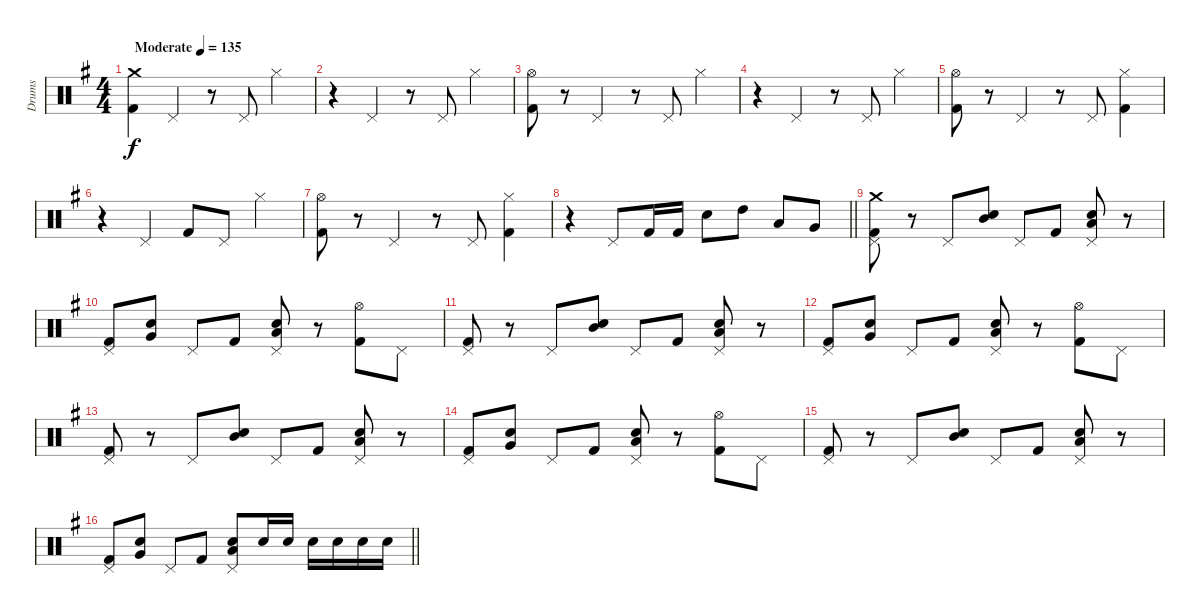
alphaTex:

\track ("Drums" "Drums") {instrument percussion}
\staff {score}
\articulation defaults
\ts (4 4)
\section ("" "")
\tempo (135 "Moderate")
\clef neutral
\ks eminor
("Crash medium (hit)" "Kick (hit) 2").4{dy f} "Pedal Hi-Hat (hit)".4 r.8 "Pedal Hi-Hat (hit)".8 "Hi-Hat (closed)".4 |
r.4 "Pedal Hi-Hat (hit)".4 r.8 "Pedal Hi-Hat (hit)".8 "Hi-Hat (closed)".4 |
("Hi-Hat (open)" "Kick (hit) 2").8 r.8 "Pedal Hi-Hat (hit)".4 r.8 "Pedal Hi-Hat (hit)".8 "Hi-Hat (closed)".4 |
r.4 "Pedal Hi-Hat (hit)".4 r.8 "Pedal Hi-Hat (hit)".8 "Hi-Hat (closed)".4 |
("Hi-Hat (open)" "Kick (hit) 2").8 r.8 "Pedal Hi-Hat (hit)".4 r.8 "Pedal Hi-Hat (hit)".8 ("Hi-Hat (closed)" "Kick (hit) 2").4 |
r.4 "Pedal Hi-Hat (hit)".4 "Kick (hit) 2".8 "Pedal Hi-Hat (hit)".8 "Hi-Hat (closed)".4 |
("Hi-Hat (open)" "Kick (hit) 2").8 r.8 "Pedal Hi-Hat (hit)".4 r.8 "Pedal Hi-Hat (hit)".8 ("Hi-Hat (closed)" "Kick (hit) 2").4 |
\barLineRight lightlight
r.4 "Pedal Hi-Hat (hit)".8 "Kick (hit) 2".16 "Kick (hit) 2".16 "Electric Snare (hit)".8 "High Tom (hit)".8 "Low Tom (hit)".8 "Very Low Tom (hit)".8 |
\section ("" "")
("Crash medium (hit)" "Pedal Hi-Hat (hit)" "Kick (hit) 2").8 r.8 "Pedal Hi-Hat (hit)".8 ("Electric Snare (hit)" "Mid Tom (hit)").8 "Pedal Hi-Hat (hit)".8 "Kick (hit) 2".8 ("Pedal Hi-Hat (hit)" "Electric Snare (hit)" "Low Tom (hit)").8 r.8 |
("Pedal Hi-Hat (hit)" "Kick (hit) 2").8 ("Electric Snare (hit)" "Very Low Tom (hit)").8 "Pedal Hi-Hat (hit)".8 "Kick (hit) 2".8 ("Pedal Hi-Hat (hit)" "Electric Snare (hit)" "Low Floor Tom (hit)").8 r.8 ("Hi-Hat (open)" "Kick (hit) 2").8 "Pedal Hi-Hat (hit)".8 |
("Pedal Hi-Hat (hit)" "Kick (hit) 2").8 r.8 "Pedal Hi-Hat (hit)".8 ("Electric Snare (hit)" "Mid Tom (hit)").8 "Pedal Hi-Hat (hit)".8 "Kick (hit) 2".8 ("Pedal Hi-Hat (hit)" "Electric Snare (hit)" "Low Tom (hit)").8 r.8 |
("Pedal Hi-Hat (hit)" "Kick (hit) 2").8 ("Electric Snare (hit)" "Very Low Tom (hit)").8 "Pedal Hi-Hat (hit)".8 "Kick (hit) 2".8 ("Pedal Hi-Hat (hit)" "Electric Snare (hit)" "Low Floor Tom (hit)").8 r.8 ("Hi-Hat (open)" "Kick (hit) 2").8 "Pedal Hi-Hat (hit)".8 |
("Pedal Hi-Hat (hit)" "Kick (hit) 2").8 r.8 "Pedal Hi-Hat (hit)".8 ("Electric Snare (hit)" "Mid Tom (hit)").8 "Pedal Hi-Hat (hit)".8 "Kick (hit) 2".8 ("Pedal Hi-Hat (hit)" "Electric Snare (hit)" "Low Tom (hit)").8 r.8 |
("Pedal Hi-Hat (hit)" "Kick (hit) 2").8 ("Electric Snare (hit)" "Very Low Tom (hit)").8 "Pedal Hi-Hat (hit)".8 "Kick (hit) 2".8 ("Pedal Hi-Hat (hit)" "Electric Snare (hit)" "Low Floor Tom (hit)").8 r.8 ("Hi-Hat (open)" "Kick (hit) 2").8 "Pedal Hi-Hat (hit)".8 |
("Pedal Hi-Hat (hit)" "Kick (hit) 2").8 r.8 "Pedal Hi-Hat (hit)".8 ("Electric Snare (hit)" "Mid Tom (hit)").8 "Pedal Hi-Hat (hit)".8 "Kick (hit) 2".8 ("Pedal Hi-Hat (hit)" "Electric Snare (hit)" "Low Tom (hit)").8 r.8 |
\barLineRight lightlight
("Pedal Hi-Hat (hit)" "Kick (hit) 2").8 ("Electric Snare (hit)" "Very Low Tom (hit)").8 "Pedal Hi-Hat (hit)".8 "Kick (hit) 2".8 ("Pedal Hi-Hat (hit)" "Electric Snare (hit)" "Low Floor Tom (hit)").8 "Electric Snare (hit)".16 "Electric Snare (hit)".16 "Electric Snare (hit)".16 "Electric Snare (hit)".16 "Electric Snare (hit)".16 "Electric Snare (hit)".16
